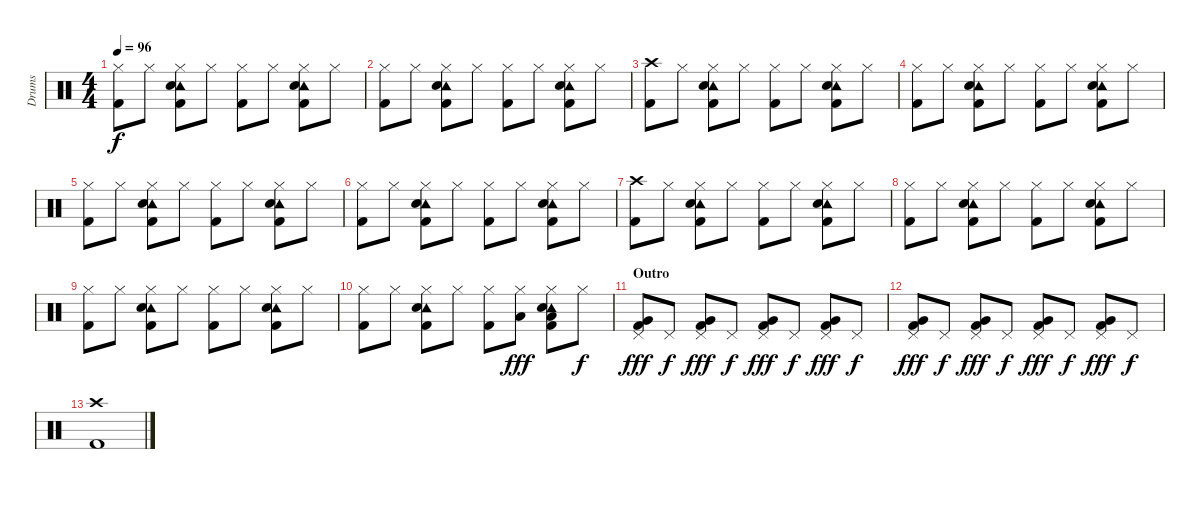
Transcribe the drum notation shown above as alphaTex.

\track ("Drums" "Drums") {instrument percussion}
\staff {score}
\articulation defaults
\ts (4 4)
\tempo 96
\clef neutral
\ks c
("Hi-Hat (closed)" "Kick (hit) 2").8{dy f} "Hi-Hat (closed)".8 ("Hi-Hat (closed)" "Tambourine (hit)" "Snare (hit) 2" "Kick (hit) 2").8 "Hi-Hat (closed)".8 ("Hi-Hat (closed)" "Kick (hit) 2").8 "Hi-Hat (closed)".8 ("Hi-Hat (closed)" "Tambourine (hit)" "Snare (hit) 2" "Kick (hit) 2").8 "Hi-Hat (closed)".8 |
("Hi-Hat (closed)" "Kick (hit) 2").8 "Hi-Hat (closed)".8 ("Hi-Hat (closed)" "Tambourine (hit)" "Snare (hit) 2" "Kick (hit) 2").8 "Hi-Hat (closed)".8 ("Hi-Hat (closed)" "Kick (hit) 2").8 "Hi-Hat (closed)".8 ("Hi-Hat (closed)" "Tambourine (hit)" "Snare (hit) 2" "Kick (hit) 2").8 "Hi-Hat (closed)".8 |
("Crash high (hit)" "Kick (hit) 2").8 "Hi-Hat (closed)".8 ("Hi-Hat (closed)" "Tambourine (hit)" "Snare (hit) 2" "Kick (hit) 2").8 "Hi-Hat (closed)".8 ("Hi-Hat (closed)" "Kick (hit) 2").8 "Hi-Hat (closed)".8 ("Hi-Hat (closed)" "Tambourine (hit)" "Snare (hit) 2" "Kick (hit) 2").8 "Hi-Hat (closed)".8 |
("Hi-Hat (closed)" "Kick (hit) 2").8 "Hi-Hat (closed)".8 ("Hi-Hat (closed)" "Tambourine (hit)" "Snare (hit) 2" "Kick (hit) 2").8 "Hi-Hat (closed)".8 ("Hi-Hat (closed)" "Kick (hit) 2").8 "Hi-Hat (closed)".8 ("Hi-Hat (closed)" "Tambourine (hit)" "Snare (hit) 2" "Kick (hit) 2").8 "Hi-Hat (closed)".8 |
("Hi-Hat (closed)" "Kick (hit) 2").8 "Hi-Hat (closed)".8 ("Hi-Hat (closed)" "Tambourine (hit)" "Snare (hit) 2" "Kick (hit) 2").8 "Hi-Hat (closed)".8 ("Hi-Hat (closed)" "Kick (hit) 2").8 "Hi-Hat (closed)".8 ("Hi-Hat (closed)" "Tambourine (hit)" "Snare (hit) 2" "Kick (hit) 2").8 "Hi-Hat (closed)".8 |
("Hi-Hat (closed)" "Kick (hit) 2").8 "Hi-Hat (closed)".8 ("Hi-Hat (closed)" "Tambourine (hit)" "Snare (hit) 2" "Kick (hit) 2").8 "Hi-Hat (closed)".8 ("Hi-Hat (closed)" "Kick (hit) 2").8 "Hi-Hat (closed)".8 ("Hi-Hat (closed)" "Tambourine (hit)" "Snare (hit) 2" "Kick (hit) 2").8 "Hi-Hat (closed)".8 |
("Crash high (hit)" "Kick (hit) 2").8 "Hi-Hat (closed)".8 ("Hi-Hat (closed)" "Tambourine (hit)" "Snare (hit) 2" "Kick (hit) 2").8 "Hi-Hat (closed)".8 ("Hi-Hat (closed)" "Kick (hit) 2").8 "Hi-Hat (closed)".8 ("Hi-Hat (closed)" "Tambourine (hit)" "Snare (hit) 2" "Kick (hit) 2").8 "Hi-Hat (closed)".8 |
("Hi-Hat (closed)" "Kick (hit) 2").8 "Hi-Hat (closed)".8 ("Hi-Hat (closed)" "Tambourine (hit)" "Snare (hit) 2" "Kick (hit) 2").8 "Hi-Hat (closed)".8 ("Hi-Hat (closed)" "Kick (hit) 2").8 "Hi-Hat (closed)".8 ("Hi-Hat (closed)" "Tambourine (hit)" "Snare (hit) 2" "Kick (hit) 2").8 "Hi-Hat (closed)".8 |
("Hi-Hat (closed)" "Kick (hit) 2").8 "Hi-Hat (closed)".8 ("Hi-Hat (closed)" "Tambourine (hit)" "Snare (hit) 2" "Kick (hit) 2").8 "Hi-Hat (closed)".8 ("Hi-Hat (closed)" "Kick (hit) 2").8 "Hi-Hat (closed)".8 ("Hi-Hat (closed)" "Tambourine (hit)" "Snare (hit) 2" "Kick (hit) 2").8 "Hi-Hat (closed)".8 |
("Hi-Hat (closed)" "Kick (hit) 2").8 "Hi-Hat (closed)".8 ("Hi-Hat (closed)" "Tambourine (hit)" "Snare (hit) 2" "Kick (hit) 2").8 "Hi-Hat (closed)".8 ("Hi-Hat (closed)" "Kick (hit) 2").8 ("Hi-Hat (closed)" "Low Tom (hit)").8{dy fff} ("Hi-Hat (closed)" "Tambourine (hit)" "Low Tom (hit)" "Snare (hit) 2" "Kick (hit) 2").8 "Hi-Hat (closed)".8{dy f} |
\section ("" "Outro")
("Pedal Hi-Hat (hit)" "Very Low Tom (hit)" "Kick (hit) 2").8{dy fff} "Pedal Hi-Hat (hit)".8{dy f} ("Pedal Hi-Hat (hit)" "Very Low Tom (hit)" "Kick (hit) 2").8{dy fff} "Pedal Hi-Hat (hit)".8{dy f} ("Pedal Hi-Hat (hit)" "Very Low Tom (hit)" "Kick (hit) 2").8{dy fff} "Pedal Hi-Hat (hit)".8{dy f} ("Pedal Hi-Hat (hit)" "Very Low Tom (hit)" "Kick (hit) 2").8{dy fff} "Pedal Hi-Hat (hit)".8{dy f} |
("Pedal Hi-Hat (hit)" "Very Low Tom (hit)" "Kick (hit) 2").8{dy fff} "Pedal Hi-Hat (hit)".8{dy f} ("Pedal Hi-Hat (hit)" "Very Low Tom (hit)" "Kick (hit) 2").8{dy fff} "Pedal Hi-Hat (hit)".8{dy f} ("Pedal Hi-Hat (hit)" "Very Low Tom (hit)" "Kick (hit) 2").8{dy fff} "Pedal Hi-Hat (hit)".8{dy f} ("Pedal Hi-Hat (hit)" "Very Low Tom (hit)" "Kick (hit) 2").8{dy fff} "Pedal Hi-Hat (hit)".8{dy f} |
("Crash high (hit)" "Kick (hit) 2").1
